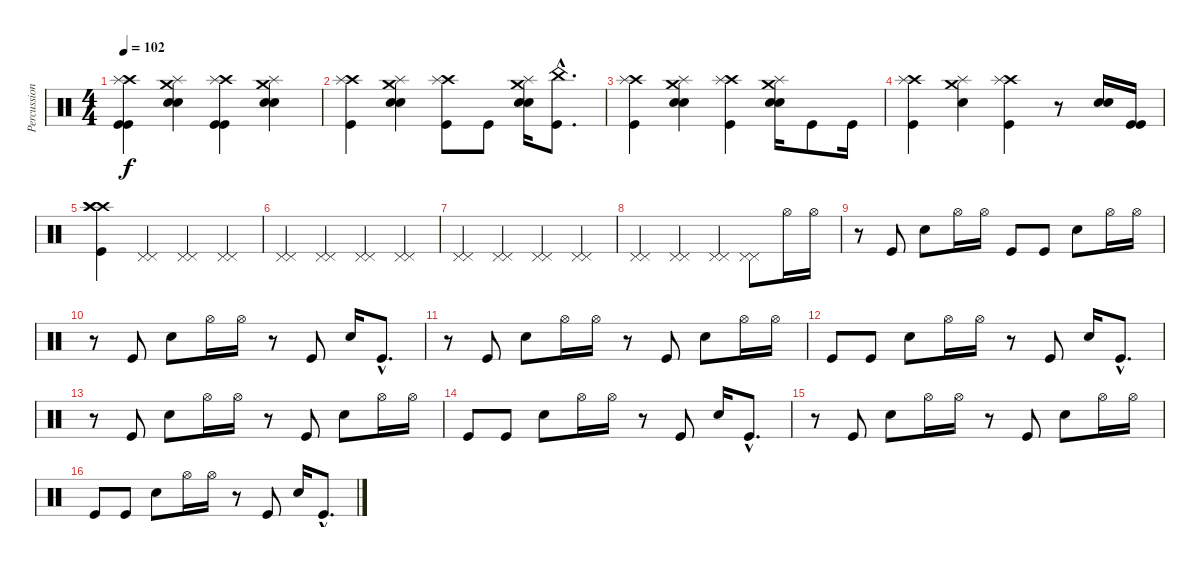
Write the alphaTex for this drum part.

\track ("Percussion (David)" "Percussion") {instrument percussion}
\staff {score}
\articulation defaults
\ts (4 4)
\tempo 102
\clef neutral
\ks c
("Kick (hit)" "Crash high (hit)" "Splash (hit)" "Kick (hit)").4{dy f} ("Electric Snare (hit)" "Crash medium (hit)" "Splash (hit)" "Electric Snare (hit)").4 ("Kick (hit)" "Crash high (hit)" "Splash (hit)" "Kick (hit)").4 ("Electric Snare (hit)" "Crash medium (hit)" "Splash (hit)" "Electric Snare (hit)").4 |
("Kick (hit)" "Crash high (hit)" "Splash (hit)").4 ("Electric Snare (hit)" "Crash medium (hit)" "Splash (hit)" "Electric Snare (hit)").4 ("Kick (hit)" "Crash high (hit)" "Splash (hit)").8 "Kick (hit)".8 ("Electric Snare (hit)" "Crash medium (hit)" "Splash (hit)" "Electric Snare (hit)").16 ("Kick (hit)"{hac} "China (hit)"{hac}).8{d} |
("Kick (hit)" "Crash high (hit)" "Splash (hit)").4 ("Electric Snare (hit)" "Crash medium (hit)" "Splash (hit)" "Electric Snare (hit)").4 ("Kick (hit)" "Crash high (hit)" "Splash (hit)").4 ("Electric Snare (hit)" "Crash medium (hit)" "Splash (hit)" "Electric Snare (hit)").16 "Kick (hit)".8 "Kick (hit)".16 |
("Kick (hit)" "Crash high (hit)" "Splash (hit)").4 ("Electric Snare (hit)" "Crash medium (hit)" "Splash (hit)").4 ("Kick (hit)" "Crash high (hit)" "Splash (hit)").4 r.8 ("Electric Snare (hit)" "Electric Snare (hit)").16 ("Kick (hit)" "Kick (hit)").16 |
("Kick (hit)" "Crash high (hit)" "Crash high (hit)" "Crash high (hit)").4 ("Pedal Hi-Hat (hit)" "Pedal Hi-Hat (hit)").4 ("Pedal Hi-Hat (hit)" "Pedal Hi-Hat (hit)").4 ("Pedal Hi-Hat (hit)" "Pedal Hi-Hat (hit)").4 |
("Pedal Hi-Hat (hit)" "Pedal Hi-Hat (hit)").4 ("Pedal Hi-Hat (hit)" "Pedal Hi-Hat (hit)").4 ("Pedal Hi-Hat (hit)" "Pedal Hi-Hat (hit)").4 ("Pedal Hi-Hat (hit)" "Pedal Hi-Hat (hit)").4 |
("Pedal Hi-Hat (hit)" "Pedal Hi-Hat (hit)").4 ("Pedal Hi-Hat (hit)" "Pedal Hi-Hat (hit)").4 ("Pedal Hi-Hat (hit)" "Pedal Hi-Hat (hit)").4 ("Pedal Hi-Hat (hit)" "Pedal Hi-Hat (hit)").4 |
("Pedal Hi-Hat (hit)" "Pedal Hi-Hat (hit)").4 ("Pedal Hi-Hat (hit)" "Pedal Hi-Hat (hit)").4 ("Pedal Hi-Hat (hit)" "Pedal Hi-Hat (hit)").4 ("Pedal Hi-Hat (hit)" "Pedal Hi-Hat (hit)").8 "Hi-Hat (open)".16 "Hi-Hat (open)".16 |
r.8 "Kick (hit)".8 "Electric Snare (hit)".8 "Hi-Hat (open)".16 "Hi-Hat (open)".16 "Kick (hit)".8 "Kick (hit)".8 "Electric Snare (hit)".8 "Hi-Hat (open)".16 "Hi-Hat (open)".16 |
r.8 "Kick (hit)".8 "Electric Snare (hit)".8 "Hi-Hat (open)".16 "Hi-Hat (open)".16 r.8 "Kick (hit)".8 "Electric Snare (hit)".16 "Kick (hit)"{hac}.8{d} |
r.8 "Kick (hit)".8 "Electric Snare (hit)".8 "Hi-Hat (open)".16 "Hi-Hat (open)".16 r.8 "Kick (hit)".8 "Electric Snare (hit)".8 "Hi-Hat (open)".16 "Hi-Hat (open)".16 |
"Kick (hit)".8 "Kick (hit)".8 "Electric Snare (hit)".8 "Hi-Hat (open)".16 "Hi-Hat (open)".16 r.8 "Kick (hit)".8 "Electric Snare (hit)".16 "Kick (hit)"{hac}.8{d} |
r.8 "Kick (hit)".8 "Electric Snare (hit)".8 "Hi-Hat (open)".16 "Hi-Hat (open)".16 r.8 "Kick (hit)".8 "Electric Snare (hit)".8 "Hi-Hat (open)".16 "Hi-Hat (open)".16 |
"Kick (hit)".8 "Kick (hit)".8 "Electric Snare (hit)".8 "Hi-Hat (open)".16 "Hi-Hat (open)".16 r.8 "Kick (hit)".8 "Electric Snare (hit)".16 "Kick (hit)"{hac}.8{d} |
r.8 "Kick (hit)".8 "Electric Snare (hit)".8 "Hi-Hat (open)".16 "Hi-Hat (open)".16 r.8 "Kick (hit)".8 "Electric Snare (hit)".8 "Hi-Hat (open)".16 "Hi-Hat (open)".16 |
"Kick (hit)".8 "Kick (hit)".8 "Electric Snare (hit)".8 "Hi-Hat (open)".16 "Hi-Hat (open)".16 r.8 "Kick (hit)".8 "Electric Snare (hit)".16 "Kick (hit)"{hac}.8{d}
